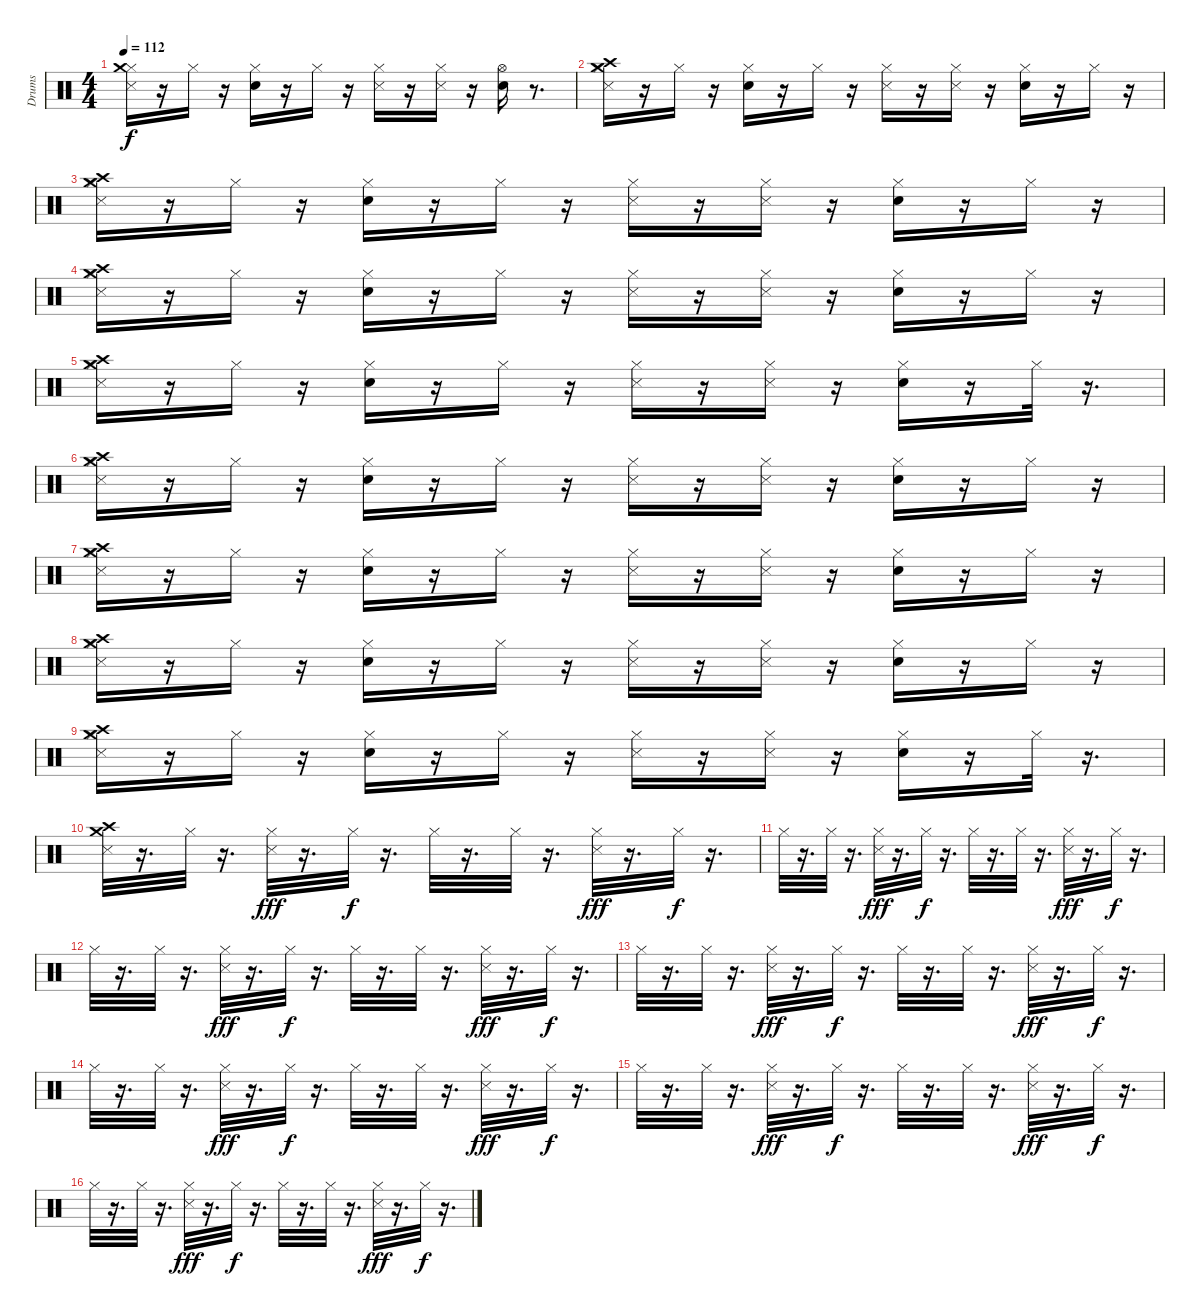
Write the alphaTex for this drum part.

\track ("Drums" "Drums") {instrument percussion}
\staff {score}
\articulation defaults
\ts (4 4)
\tempo 112
\clef neutral
\ks c
("Hi-Hat (closed)" "Crash medium (hit)" "Metronome (hit)").16{dy f} r.16 "Hi-Hat (closed)".16 r.16 ("Hi-Hat (closed)" "Electric Snare (hit)").16 r.16 "Hi-Hat (closed)".16 r.16 ("Hi-Hat (closed)" "Metronome (hit)").16 r.16 ("Hi-Hat (closed)" "Metronome (hit)").16 r.16 ("Hi-Hat (open)" "Electric Snare (hit)").16 r.8{d} |
("Crash high (hit)" "Crash medium (hit)" "Hi-Hat (closed)" "Metronome (hit)").16 r.16 "Hi-Hat (closed)".16 r.16 ("Hi-Hat (closed)" "Electric Snare (hit)").16 r.16 "Hi-Hat (closed)".16 r.16 ("Hi-Hat (closed)" "Metronome (hit)").16 r.16 ("Hi-Hat (closed)" "Metronome (hit)").16 r.16 ("Hi-Hat (closed)" "Electric Snare (hit)").16 r.16 "Hi-Hat (closed)".16 r.16 |
("Crash high (hit)" "Crash medium (hit)" "Hi-Hat (closed)" "Metronome (hit)").16 r.16 "Hi-Hat (closed)".16 r.16 ("Hi-Hat (closed)" "Electric Snare (hit)").16 r.16 "Hi-Hat (closed)".16 r.16 ("Hi-Hat (closed)" "Metronome (hit)").16 r.16 ("Hi-Hat (closed)" "Metronome (hit)").16 r.16 ("Hi-Hat (closed)" "Electric Snare (hit)").16 r.16 "Hi-Hat (closed)".16 r.16 |
("Crash high (hit)" "Crash medium (hit)" "Hi-Hat (closed)" "Metronome (hit)").16 r.16 "Hi-Hat (closed)".16 r.16 ("Hi-Hat (closed)" "Electric Snare (hit)").16 r.16 "Hi-Hat (closed)".16 r.16 ("Hi-Hat (closed)" "Metronome (hit)").16 r.16 ("Hi-Hat (closed)" "Metronome (hit)").16 r.16 ("Hi-Hat (closed)" "Electric Snare (hit)").16 r.16 "Hi-Hat (closed)".16 r.16 |
("Crash high (hit)" "Crash medium (hit)" "Hi-Hat (closed)" "Metronome (hit)").16 r.16 "Hi-Hat (closed)".16 r.16 ("Hi-Hat (closed)" "Electric Snare (hit)").16 r.16 "Hi-Hat (closed)".16 r.16 ("Hi-Hat (closed)" "Metronome (hit)").16 r.16 ("Hi-Hat (closed)" "Metronome (hit)").16 r.16 ("Hi-Hat (closed)" "Electric Snare (hit)").16 r.16 "Hi-Hat (closed)".32 r.16{d} |
("Hi-Hat (closed)" "Metronome (hit)" "Crash medium (hit)" "Crash high (hit)").16 r.16 "Hi-Hat (closed)".16 r.16 ("Electric Snare (hit)" "Hi-Hat (closed)").16 r.16 "Hi-Hat (closed)".16 r.16 ("Metronome (hit)" "Hi-Hat (closed)").16 r.16 ("Hi-Hat (closed)" "Metronome (hit)").16 r.16 ("Hi-Hat (closed)" "Electric Snare (hit)").16 r.16 "Hi-Hat (closed)".16 r.16 |
("Metronome (hit)" "Hi-Hat (closed)" "Crash high (hit)" "Crash medium (hit)").16 r.16 "Hi-Hat (closed)".16 r.16 ("Hi-Hat (closed)" "Electric Snare (hit)").16 r.16 "Hi-Hat (closed)".16 r.16 ("Metronome (hit)" "Hi-Hat (closed)").16 r.16 ("Hi-Hat (closed)" "Metronome (hit)").16 r.16 ("Hi-Hat (closed)" "Electric Snare (hit)").16 r.16 "Hi-Hat (closed)".16 r.16 |
("Crash medium (hit)" "Crash high (hit)" "Hi-Hat (closed)" "Metronome (hit)").16 r.16 "Hi-Hat (closed)".16 r.16 ("Hi-Hat (closed)" "Electric Snare (hit)").16 r.16 "Hi-Hat (closed)".16 r.16 ("Metronome (hit)" "Hi-Hat (closed)").16 r.16 ("Hi-Hat (closed)" "Metronome (hit)").16 r.16 ("Hi-Hat (closed)" "Electric Snare (hit)").16 r.16 "Hi-Hat (closed)".16 r.16 |
("Hi-Hat (closed)" "Metronome (hit)" "Crash high (hit)" "Crash medium (hit)").16 r.16 "Hi-Hat (closed)".16 r.16 ("Hi-Hat (closed)" "Electric Snare (hit)").16 r.16 "Hi-Hat (closed)".16 r.16 ("Metronome (hit)" "Hi-Hat (closed)").16 r.16 ("Hi-Hat (closed)" "Metronome (hit)").16 r.16 ("Electric Snare (hit)" "Hi-Hat (closed)").16 r.16 "Hi-Hat (closed)".32 r.16{d} |
("Crash medium (hit)" "Metronome (hit)" "Crash high (hit)").32 r.16{d} "Hi-Hat (closed)".32 r.16{d} ("Hi-Hat (closed)" "Snare (side stick) 3").32{dy fff} r.16{d} "Hi-Hat (closed)".32{dy f} r.16{d} "Hi-Hat (closed)".32 r.16{d} "Hi-Hat (closed)".32 r.16{d} ("Snare (side stick) 3" "Hi-Hat (closed)").32{dy fff} r.16{d} "Hi-Hat (closed)".32{dy f} r.16{d} |
"Hi-Hat (closed)".32 r.16{d} "Hi-Hat (closed)".32 r.16{d} ("Hi-Hat (closed)" "Snare (side stick) 3").32{dy fff} r.16{d} "Hi-Hat (closed)".32{dy f} r.16{d} "Hi-Hat (closed)".32 r.16{d} "Hi-Hat (closed)".32 r.16{d} ("Snare (side stick) 3" "Hi-Hat (closed)").32{dy fff} r.16{d} "Hi-Hat (closed)".32{dy f} r.16{d} |
"Hi-Hat (closed)".32 r.16{d} "Hi-Hat (closed)".32 r.16{d} ("Hi-Hat (closed)" "Snare (side stick) 3").32{dy fff} r.16{d} "Hi-Hat (closed)".32{dy f} r.16{d} "Hi-Hat (closed)".32 r.16{d} "Hi-Hat (closed)".32 r.16{d} ("Hi-Hat (closed)" "Snare (side stick) 3").32{dy fff} r.16{d} "Hi-Hat (closed)".32{dy f} r.16{d} |
"Hi-Hat (closed)".32 r.16{d} "Hi-Hat (closed)".32 r.16{d} ("Snare (side stick) 3" "Hi-Hat (closed)").32{dy fff} r.16{d} "Hi-Hat (closed)".32{dy f} r.16{d} "Hi-Hat (closed)".32 r.16{d} "Hi-Hat (closed)".32 r.16{d} ("Hi-Hat (closed)" "Snare (side stick) 3").32{dy fff} r.16{d} "Hi-Hat (closed)".32{dy f} r.16{d} |
"Hi-Hat (closed)".32 r.16{d} "Hi-Hat (closed)".32 r.16{d} ("Hi-Hat (closed)" "Snare (side stick) 3").32{dy fff} r.16{d} "Hi-Hat (closed)".32{dy f} r.16{d} "Hi-Hat (closed)".32 r.16{d} "Hi-Hat (closed)".32 r.16{d} ("Hi-Hat (closed)" "Snare (side stick) 3").32{dy fff} r.16{d} "Hi-Hat (closed)".32{dy f} r.16{d} |
"Hi-Hat (closed)".32 r.16{d} "Hi-Hat (closed)".32 r.16{d} ("Snare (side stick) 3" "Hi-Hat (closed)").32{dy fff} r.16{d} "Hi-Hat (closed)".32{dy f} r.16{d} "Hi-Hat (closed)".32 r.16{d} "Hi-Hat (closed)".32 r.16{d} ("Hi-Hat (closed)" "Snare (side stick) 3").32{dy fff} r.16{d} "Hi-Hat (closed)".32{dy f} r.16{d} |
"Hi-Hat (closed)".32 r.16{d} "Hi-Hat (closed)".32 r.16{d} ("Snare (side stick) 3" "Hi-Hat (closed)").32{dy fff} r.16{d} "Hi-Hat (closed)".32{dy f} r.16{d} "Hi-Hat (closed)".32 r.16{d} "Hi-Hat (closed)".32 r.16{d} ("Hi-Hat (closed)" "Snare (side stick) 3").32{dy fff} r.16{d} "Hi-Hat (closed)".32{dy f} r.16{d}
